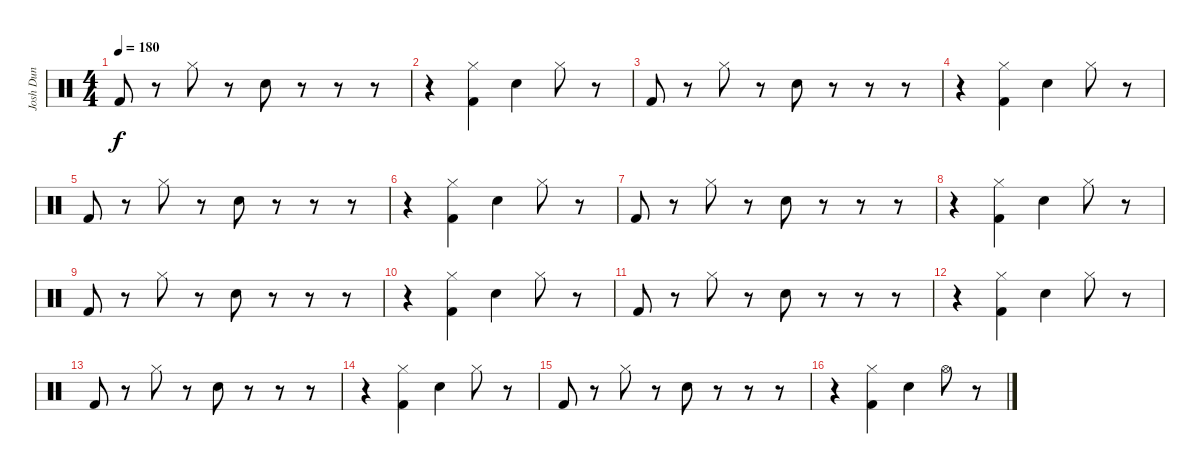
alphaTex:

\track ("Josh Dun" "Josh Dun") {instrument percussion}
\staff {score}
\articulation defaults
\ts (4 4)
\tempo 180
\clef neutral
\ks c "Kick (hit) 2".8{dy f}
r.8 "Hi-Hat (closed)".8 r.8 "Snare (hit) 2".8 r.8 r.8 r.8 |
r.4 ("Hi-Hat (closed)" "Kick (hit) 2").4 "Snare (hit) 2".4 "Hi-Hat (closed)".8 r.8 |
"Kick (hit) 2".8 r.8 "Hi-Hat (closed)".8 r.8 "Snare (hit) 2".8 r.8 r.8 r.8 |
r.4 ("Hi-Hat (closed)" "Kick (hit) 2").4 "Snare (hit) 2".4 "Hi-Hat (closed)".8 r.8 |
"Kick (hit) 2".8 r.8 "Hi-Hat (closed)".8 r.8 "Snare (hit) 2".8 r.8 r.8 r.8 |
r.4 ("Hi-Hat (closed)" "Kick (hit) 2").4 "Snare (hit) 2".4 "Hi-Hat (closed)".8 r.8 |
"Kick (hit) 2".8 r.8 "Hi-Hat (closed)".8 r.8 "Snare (hit) 2".8 r.8 r.8 r.8 |
r.4 ("Hi-Hat (closed)" "Kick (hit) 2").4 "Snare (hit) 2".4 "Hi-Hat (closed)".8 r.8 |
"Kick (hit) 2".8 r.8 "Hi-Hat (closed)".8 r.8 "Snare (hit) 2".8 r.8 r.8 r.8 |
r.4 ("Hi-Hat (closed)" "Kick (hit) 2").4 "Snare (hit) 2".4 "Hi-Hat (closed)".8 r.8 |
"Kick (hit) 2".8 r.8 "Hi-Hat (closed)".8 r.8 "Snare (hit) 2".8 r.8 r.8 r.8 |
r.4 ("Hi-Hat (closed)" "Kick (hit) 2").4 "Snare (hit) 2".4 "Hi-Hat (closed)".8 r.8 |
"Kick (hit) 2".8 r.8 "Hi-Hat (closed)".8 r.8 "Snare (hit) 2".8 r.8 r.8 r.8 |
r.4 ("Hi-Hat (closed)" "Kick (hit) 2").4 "Snare (hit) 2".4 "Hi-Hat (closed)".8 r.8 |
"Kick (hit) 2".8 r.8 "Hi-Hat (closed)".8 r.8 "Snare (hit) 2".8 r.8 r.8 r.8 |
r.4 ("Hi-Hat (closed)" "Kick (hit) 2").4 "Snare (hit) 2".4 "Hi-Hat (open)".8 r.8
